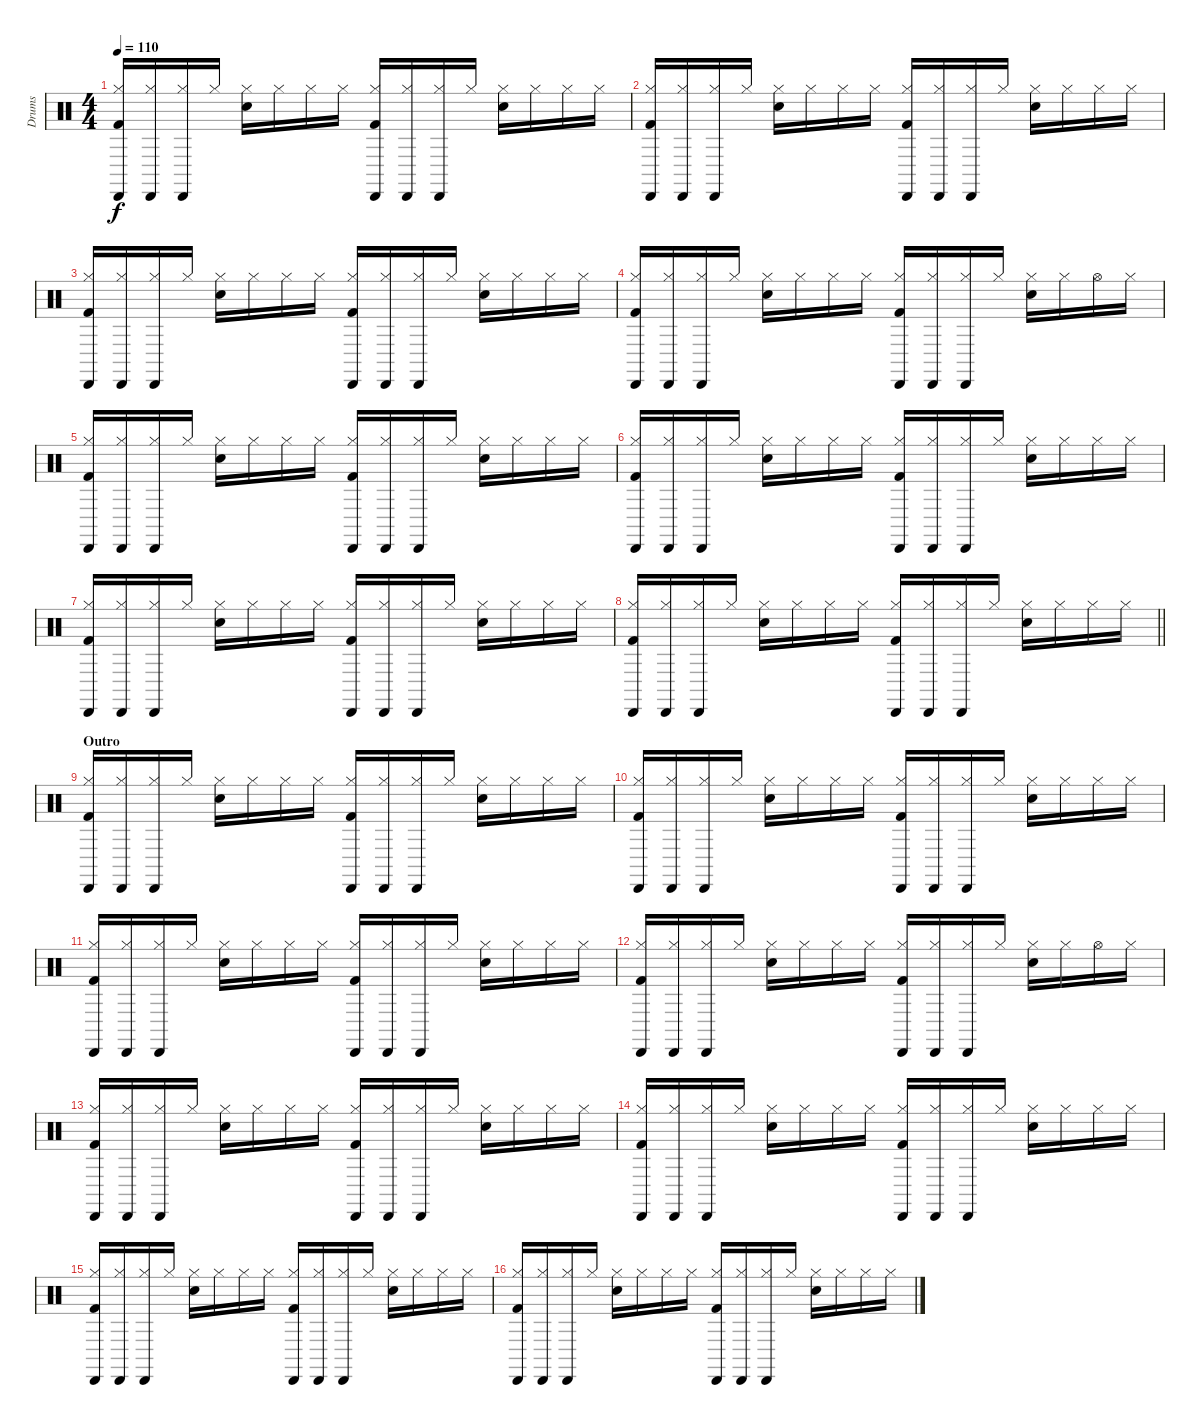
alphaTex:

\track ("Drums" "Drums") {instrument percussion}
\staff {score}
\articulation defaults
\ts (4 4)
\tempo 110
\clef neutral
\ks c
("Cabasa (hit)" "Kick (hit) 2" "Hi-Hat (closed)").16{dy f} ("Cabasa (hit)" "Hi-Hat (closed)").16 ("Cabasa (hit)" "Hi-Hat (closed)").16 "Hi-Hat (closed)".16 ("Electric Snare (hit)" "Hi-Hat (closed)").16 "Hi-Hat (closed)".16 "Hi-Hat (closed)".16 "Hi-Hat (closed)".16 ("Cabasa (hit)" "Kick (hit) 2" "Hi-Hat (closed)").16 ("Cabasa (hit)" "Hi-Hat (closed)").16 ("Cabasa (hit)" "Hi-Hat (closed)").16 "Hi-Hat (closed)".16 ("Electric Snare (hit)" "Hi-Hat (closed)").16 "Hi-Hat (closed)".16 "Hi-Hat (closed)".16 "Hi-Hat (closed)".16 |
("Cabasa (hit)" "Kick (hit) 2" "Hi-Hat (closed)").16 ("Cabasa (hit)" "Hi-Hat (closed)").16 ("Cabasa (hit)" "Hi-Hat (closed)").16 "Hi-Hat (closed)".16 ("Electric Snare (hit)" "Hi-Hat (closed)").16 "Hi-Hat (closed)".16 "Hi-Hat (closed)".16 "Hi-Hat (closed)".16 ("Cabasa (hit)" "Kick (hit) 2" "Hi-Hat (closed)").16 ("Cabasa (hit)" "Hi-Hat (closed)").16 ("Cabasa (hit)" "Hi-Hat (closed)").16 "Hi-Hat (closed)".16 ("Electric Snare (hit)" "Hi-Hat (closed)").16 "Hi-Hat (closed)".16 "Hi-Hat (closed)".16 "Hi-Hat (closed)".16 |
("Cabasa (hit)" "Kick (hit) 2" "Hi-Hat (closed)").16 ("Cabasa (hit)" "Hi-Hat (closed)").16 ("Cabasa (hit)" "Hi-Hat (closed)").16 "Hi-Hat (closed)".16 ("Electric Snare (hit)" "Hi-Hat (closed)").16 "Hi-Hat (closed)".16 "Hi-Hat (closed)".16 "Hi-Hat (closed)".16 ("Cabasa (hit)" "Kick (hit) 2" "Hi-Hat (closed)").16 ("Cabasa (hit)" "Hi-Hat (closed)").16 ("Cabasa (hit)" "Hi-Hat (closed)").16 "Hi-Hat (closed)".16 ("Electric Snare (hit)" "Hi-Hat (closed)").16 "Hi-Hat (closed)".16 "Hi-Hat (closed)".16 "Hi-Hat (closed)".16 |
("Cabasa (hit)" "Kick (hit) 2" "Hi-Hat (closed)").16 ("Cabasa (hit)" "Hi-Hat (closed)").16 ("Cabasa (hit)" "Hi-Hat (closed)").16 "Hi-Hat (closed)".16 ("Electric Snare (hit)" "Hi-Hat (closed)").16 "Hi-Hat (closed)".16 "Hi-Hat (closed)".16 "Hi-Hat (closed)".16 ("Cabasa (hit)" "Kick (hit) 2" "Hi-Hat (closed)").16 ("Cabasa (hit)" "Hi-Hat (closed)").16 ("Cabasa (hit)" "Hi-Hat (closed)").16 "Hi-Hat (closed)".16 ("Electric Snare (hit)" "Hi-Hat (closed)").16 "Hi-Hat (closed)".16 "Hi-Hat (open)".16 "Hi-Hat (closed)".16 |
("Cabasa (hit)" "Kick (hit) 2" "Hi-Hat (closed)").16 ("Cabasa (hit)" "Hi-Hat (closed)").16 ("Cabasa (hit)" "Hi-Hat (closed)").16 "Hi-Hat (closed)".16 ("Electric Snare (hit)" "Hi-Hat (closed)").16 "Hi-Hat (closed)".16 "Hi-Hat (closed)".16 "Hi-Hat (closed)".16 ("Cabasa (hit)" "Kick (hit) 2" "Hi-Hat (closed)").16 ("Cabasa (hit)" "Hi-Hat (closed)").16 ("Cabasa (hit)" "Hi-Hat (closed)").16 "Hi-Hat (closed)".16 ("Electric Snare (hit)" "Hi-Hat (closed)").16 "Hi-Hat (closed)".16 "Hi-Hat (closed)".16 "Hi-Hat (closed)".16 |
("Cabasa (hit)" "Kick (hit) 2" "Hi-Hat (closed)").16 ("Cabasa (hit)" "Hi-Hat (closed)").16 ("Cabasa (hit)" "Hi-Hat (closed)").16 "Hi-Hat (closed)".16 ("Electric Snare (hit)" "Hi-Hat (closed)").16 "Hi-Hat (closed)".16 "Hi-Hat (closed)".16 "Hi-Hat (closed)".16 ("Cabasa (hit)" "Kick (hit) 2" "Hi-Hat (closed)").16 ("Cabasa (hit)" "Hi-Hat (closed)").16 ("Cabasa (hit)" "Hi-Hat (closed)").16 "Hi-Hat (closed)".16 ("Electric Snare (hit)" "Hi-Hat (closed)").16 "Hi-Hat (closed)".16 "Hi-Hat (closed)".16 "Hi-Hat (closed)".16 |
("Cabasa (hit)" "Kick (hit) 2" "Hi-Hat (closed)").16 ("Cabasa (hit)" "Hi-Hat (closed)").16 ("Cabasa (hit)" "Hi-Hat (closed)").16 "Hi-Hat (closed)".16 ("Electric Snare (hit)" "Hi-Hat (closed)").16 "Hi-Hat (closed)".16 "Hi-Hat (closed)".16 "Hi-Hat (closed)".16 ("Cabasa (hit)" "Kick (hit) 2" "Hi-Hat (closed)").16 ("Cabasa (hit)" "Hi-Hat (closed)").16 ("Cabasa (hit)" "Hi-Hat (closed)").16 "Hi-Hat (closed)".16 ("Electric Snare (hit)" "Hi-Hat (closed)").16 "Hi-Hat (closed)".16 "Hi-Hat (closed)".16 "Hi-Hat (closed)".16 |
\barLineRight lightlight
("Cabasa (hit)" "Kick (hit) 2" "Hi-Hat (closed)").16 ("Cabasa (hit)" "Hi-Hat (closed)").16 ("Cabasa (hit)" "Hi-Hat (closed)").16 "Hi-Hat (closed)".16 ("Electric Snare (hit)" "Hi-Hat (closed)").16 "Hi-Hat (closed)".16 "Hi-Hat (closed)".16 "Hi-Hat (closed)".16 ("Cabasa (hit)" "Kick (hit) 2" "Hi-Hat (closed)").16 ("Cabasa (hit)" "Hi-Hat (closed)").16 ("Cabasa (hit)" "Hi-Hat (closed)").16 "Hi-Hat (closed)".16 ("Electric Snare (hit)" "Hi-Hat (closed)").16 "Hi-Hat (closed)".16 "Hi-Hat (closed)".16 "Hi-Hat (closed)".16 |
\section ("" "Outro")
("Cabasa (hit)" "Kick (hit) 2" "Hi-Hat (closed)").16 ("Cabasa (hit)" "Hi-Hat (closed)").16 ("Cabasa (hit)" "Hi-Hat (closed)").16 "Hi-Hat (closed)".16 ("Electric Snare (hit)" "Hi-Hat (closed)").16 "Hi-Hat (closed)".16 "Hi-Hat (closed)".16 "Hi-Hat (closed)".16 ("Cabasa (hit)" "Kick (hit) 2" "Hi-Hat (closed)").16 ("Cabasa (hit)" "Hi-Hat (closed)").16 ("Cabasa (hit)" "Hi-Hat (closed)").16 "Hi-Hat (closed)".16 ("Electric Snare (hit)" "Hi-Hat (closed)").16 "Hi-Hat (closed)".16 "Hi-Hat (closed)".16 "Hi-Hat (closed)".16 |
("Cabasa (hit)" "Kick (hit) 2" "Hi-Hat (closed)").16 ("Cabasa (hit)" "Hi-Hat (closed)").16 ("Cabasa (hit)" "Hi-Hat (closed)").16 "Hi-Hat (closed)".16 ("Electric Snare (hit)" "Hi-Hat (closed)").16 "Hi-Hat (closed)".16 "Hi-Hat (closed)".16 "Hi-Hat (closed)".16 ("Cabasa (hit)" "Kick (hit) 2" "Hi-Hat (closed)").16 ("Cabasa (hit)" "Hi-Hat (closed)").16 ("Cabasa (hit)" "Hi-Hat (closed)").16 "Hi-Hat (closed)".16 ("Electric Snare (hit)" "Hi-Hat (closed)").16 "Hi-Hat (closed)".16 "Hi-Hat (closed)".16 "Hi-Hat (closed)".16 |
("Cabasa (hit)" "Kick (hit) 2" "Hi-Hat (closed)").16 ("Cabasa (hit)" "Hi-Hat (closed)").16 ("Cabasa (hit)" "Hi-Hat (closed)").16 "Hi-Hat (closed)".16 ("Electric Snare (hit)" "Hi-Hat (closed)").16 "Hi-Hat (closed)".16 "Hi-Hat (closed)".16 "Hi-Hat (closed)".16 ("Cabasa (hit)" "Kick (hit) 2" "Hi-Hat (closed)").16 ("Cabasa (hit)" "Hi-Hat (closed)").16 ("Cabasa (hit)" "Hi-Hat (closed)").16 "Hi-Hat (closed)".16 ("Electric Snare (hit)" "Hi-Hat (closed)").16 "Hi-Hat (closed)".16 "Hi-Hat (closed)".16 "Hi-Hat (closed)".16 |
("Cabasa (hit)" "Kick (hit) 2" "Hi-Hat (closed)").16 ("Cabasa (hit)" "Hi-Hat (closed)").16 ("Cabasa (hit)" "Hi-Hat (closed)").16 "Hi-Hat (closed)".16 ("Electric Snare (hit)" "Hi-Hat (closed)").16 "Hi-Hat (closed)".16 "Hi-Hat (closed)".16 "Hi-Hat (closed)".16 ("Cabasa (hit)" "Kick (hit) 2" "Hi-Hat (closed)").16 ("Cabasa (hit)" "Hi-Hat (closed)").16 ("Cabasa (hit)" "Hi-Hat (closed)").16 "Hi-Hat (closed)".16 ("Electric Snare (hit)" "Hi-Hat (closed)").16 "Hi-Hat (closed)".16 "Hi-Hat (open)".16 "Hi-Hat (closed)".16 |
("Cabasa (hit)" "Kick (hit) 2" "Hi-Hat (closed)").16 ("Cabasa (hit)" "Hi-Hat (closed)").16 ("Cabasa (hit)" "Hi-Hat (closed)").16 "Hi-Hat (closed)".16 ("Electric Snare (hit)" "Hi-Hat (closed)").16 "Hi-Hat (closed)".16 "Hi-Hat (closed)".16 "Hi-Hat (closed)".16 ("Cabasa (hit)" "Kick (hit) 2" "Hi-Hat (closed)").16 ("Cabasa (hit)" "Hi-Hat (closed)").16 ("Cabasa (hit)" "Hi-Hat (closed)").16 "Hi-Hat (closed)".16 ("Electric Snare (hit)" "Hi-Hat (closed)").16 "Hi-Hat (closed)".16 "Hi-Hat (closed)".16 "Hi-Hat (closed)".16 |
("Cabasa (hit)" "Kick (hit) 2" "Hi-Hat (closed)").16 ("Cabasa (hit)" "Hi-Hat (closed)").16 ("Cabasa (hit)" "Hi-Hat (closed)").16 "Hi-Hat (closed)".16 ("Electric Snare (hit)" "Hi-Hat (closed)").16 "Hi-Hat (closed)".16 "Hi-Hat (closed)".16 "Hi-Hat (closed)".16 ("Cabasa (hit)" "Kick (hit) 2" "Hi-Hat (closed)").16 ("Cabasa (hit)" "Hi-Hat (closed)").16 ("Cabasa (hit)" "Hi-Hat (closed)").16 "Hi-Hat (closed)".16 ("Electric Snare (hit)" "Hi-Hat (closed)").16 "Hi-Hat (closed)".16 "Hi-Hat (closed)".16 "Hi-Hat (closed)".16 |
("Cabasa (hit)" "Kick (hit) 2" "Hi-Hat (closed)").16 ("Cabasa (hit)" "Hi-Hat (closed)").16 ("Cabasa (hit)" "Hi-Hat (closed)").16 "Hi-Hat (closed)".16 ("Electric Snare (hit)" "Hi-Hat (closed)").16 "Hi-Hat (closed)".16 "Hi-Hat (closed)".16 "Hi-Hat (closed)".16 ("Cabasa (hit)" "Kick (hit) 2" "Hi-Hat (closed)").16 ("Cabasa (hit)" "Hi-Hat (closed)").16 ("Cabasa (hit)" "Hi-Hat (closed)").16 "Hi-Hat (closed)".16 ("Electric Snare (hit)" "Hi-Hat (closed)").16 "Hi-Hat (closed)".16 "Hi-Hat (closed)".16 "Hi-Hat (closed)".16 |
("Cabasa (hit)" "Kick (hit) 2" "Hi-Hat (closed)").16 ("Cabasa (hit)" "Hi-Hat (closed)").16 ("Cabasa (hit)" "Hi-Hat (closed)").16 "Hi-Hat (closed)".16 ("Electric Snare (hit)" "Hi-Hat (closed)").16 "Hi-Hat (closed)".16 "Hi-Hat (closed)".16 "Hi-Hat (closed)".16 ("Cabasa (hit)" "Kick (hit) 2" "Hi-Hat (closed)").16 ("Cabasa (hit)" "Hi-Hat (closed)").16 ("Cabasa (hit)" "Hi-Hat (closed)").16 "Hi-Hat (closed)".16 ("Electric Snare (hit)" "Hi-Hat (closed)").16 "Hi-Hat (closed)".16 "Hi-Hat (closed)".16 "Hi-Hat (closed)".16
